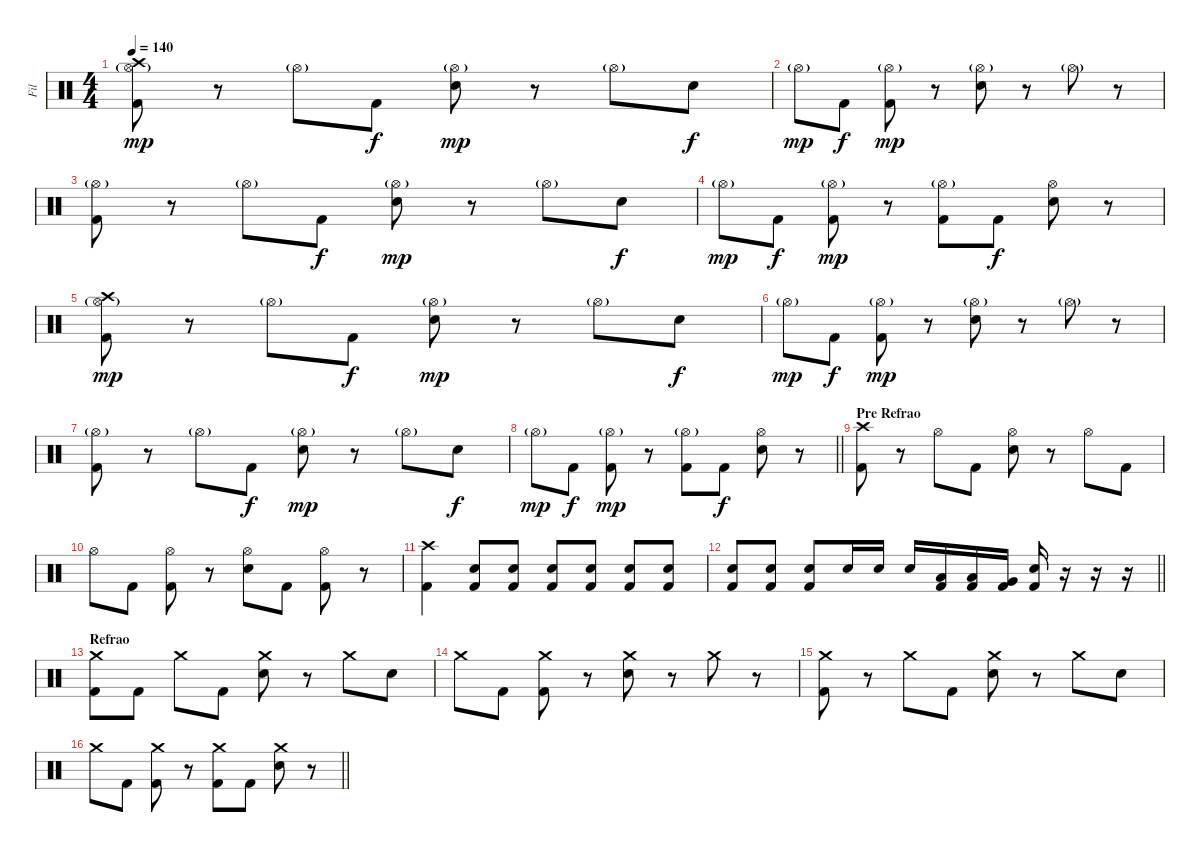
\track ("Fil" "Fil") {instrument percussion}
\staff {score}
\articulation defaults
\ts (4 4)
\tempo 140
\clef neutral
\ks c
("Crash high (hit)" "Hi-Hat (open)"{g} "Kick (hit) 2").8{dy mp} r.8 "Hi-Hat (open)"{g}.8 "Kick (hit) 2".8{dy f} ("Hi-Hat (open)"{g} "Electric Snare (hit)").8{dy mp} r.8 "Hi-Hat (open)"{g}.8 "Electric Snare (hit)".8{dy f} |
"Hi-Hat (open)"{g}.8{dy mp} "Kick (hit) 2".8{dy f} ("Hi-Hat (open)"{g} "Kick (hit) 2").8{dy mp} r.8 ("Hi-Hat (open)"{g} "Electric Snare (hit)").8 r.8 "Hi-Hat (open)"{g}.8 r.8 |
("Hi-Hat (open)"{g} "Kick (hit) 2").8 r.8 "Hi-Hat (open)"{g}.8 "Kick (hit) 2".8{dy f} ("Hi-Hat (open)"{g} "Electric Snare (hit)").8{dy mp} r.8 "Hi-Hat (open)"{g}.8 "Electric Snare (hit)".8{dy f} |
"Hi-Hat (open)"{g}.8{dy mp} "Kick (hit) 2".8{dy f} ("Hi-Hat (open)"{g} "Kick (hit) 2").8{dy mp} r.8 ("Hi-Hat (open)"{g} "Kick (hit) 2").8 "Kick (hit) 2".8{dy f} ("Hi-Hat (open)" "Electric Snare (hit)").8 r.8 |
("Crash high (hit)" "Hi-Hat (open)"{g} "Kick (hit) 2").8{dy mp} r.8 "Hi-Hat (open)"{g}.8 "Kick (hit) 2".8{dy f} ("Hi-Hat (open)"{g} "Electric Snare (hit)").8{dy mp} r.8 "Hi-Hat (open)"{g}.8 "Electric Snare (hit)".8{dy f} |
"Hi-Hat (open)"{g}.8{dy mp} "Kick (hit) 2".8{dy f} ("Hi-Hat (open)"{g} "Kick (hit) 2").8{dy mp} r.8 ("Hi-Hat (open)"{g} "Electric Snare (hit)").8 r.8 "Hi-Hat (open)"{g}.8 r.8 |
("Hi-Hat (open)"{g} "Kick (hit) 2").8 r.8 "Hi-Hat (open)"{g}.8 "Kick (hit) 2".8{dy f} ("Hi-Hat (open)"{g} "Electric Snare (hit)").8{dy mp} r.8 "Hi-Hat (open)"{g}.8 "Electric Snare (hit)".8{dy f} |
\barLineRight lightlight "Hi-Hat (open)"{g}.8{dy mp} "Kick (hit) 2".8{dy f}
("Hi-Hat (open)"{g} "Kick (hit) 2").8{dy mp} r.8 ("Hi-Hat (open)"{g} "Kick (hit) 2").8 "Kick (hit) 2".8{dy f} ("Hi-Hat (open)" "Electric Snare (hit)").8 r.8 |
\section ("" "Pre Refrao")
("Crash high (hit)" "Kick (hit) 2").8 r.8 "Hi-Hat (open)".8 "Kick (hit) 2".8 ("Hi-Hat (open)" "Electric Snare (hit)").8 r.8 "Hi-Hat (open)".8 "Kick (hit) 2".8 |
"Hi-Hat (open)".8 "Kick (hit) 2".8 ("Hi-Hat (open)" "Kick (hit) 2").8 r.8 ("Hi-Hat (open)" "Electric Snare (hit)").8 "Kick (hit) 2".8 ("Hi-Hat (open)" "Kick (hit) 2").8 r.8 |
("Crash high (hit)" "Kick (hit) 2").4 ("Electric Snare (hit)" "Kick (hit) 2").8 ("Electric Snare (hit)" "Kick (hit) 2").8 ("Electric Snare (hit)" "Kick (hit) 2").8 ("Electric Snare (hit)" "Kick (hit) 2").8 ("Electric Snare (hit)" "Kick (hit) 2").8 ("Electric Snare (hit)" "Kick (hit) 2").8 |
\barLineRight lightlight
("Electric Snare (hit)" "Kick (hit) 2").8 ("Electric Snare (hit)" "Kick (hit) 2").8 ("Electric Snare (hit)" "Kick (hit) 2").8 "Electric Snare (hit)".16 "Electric Snare (hit)".16 "Electric Snare (hit)".16 ("Low Tom (hit)" "Kick (hit) 2").16 ("Low Tom (hit)" "Kick (hit) 2").16 ("Very Low Tom (hit)" "Kick (hit) 2").16 ("Electric Snare (hit)" "Kick (hit) 2").16 r.16 r.16 r.16 |
\section ("" "Refrao")
("Crash medium (hit)" "Kick (hit) 2").8 "Kick (hit) 2".8 "Crash medium (hit)".8 "Kick (hit) 2".8 ("Crash medium (hit)" "Electric Snare (hit)").8 r.8 "Crash medium (hit)".8 "Electric Snare (hit)".8 |
"Crash medium (hit)".8 "Kick (hit) 2".8 ("Crash medium (hit)" "Kick (hit) 2").8 r.8 ("Crash medium (hit)" "Electric Snare (hit)").8 r.8 "Crash medium (hit)".8 r.8 |
("Crash medium (hit)" "Kick (hit) 2").8 r.8 "Crash medium (hit)".8 "Kick (hit) 2".8 ("Crash medium (hit)" "Electric Snare (hit)").8 r.8 "Crash medium (hit)".8 "Electric Snare (hit)".8 |
\barLineRight lightlight "Crash medium (hit)".8 "Kick (hit) 2".8
("Crash medium (hit)" "Kick (hit) 2").8 r.8 ("Crash medium (hit)" "Kick (hit) 2").8 "Kick (hit) 2".8 ("Crash medium (hit)" "Electric Snare (hit)").8 r.8
